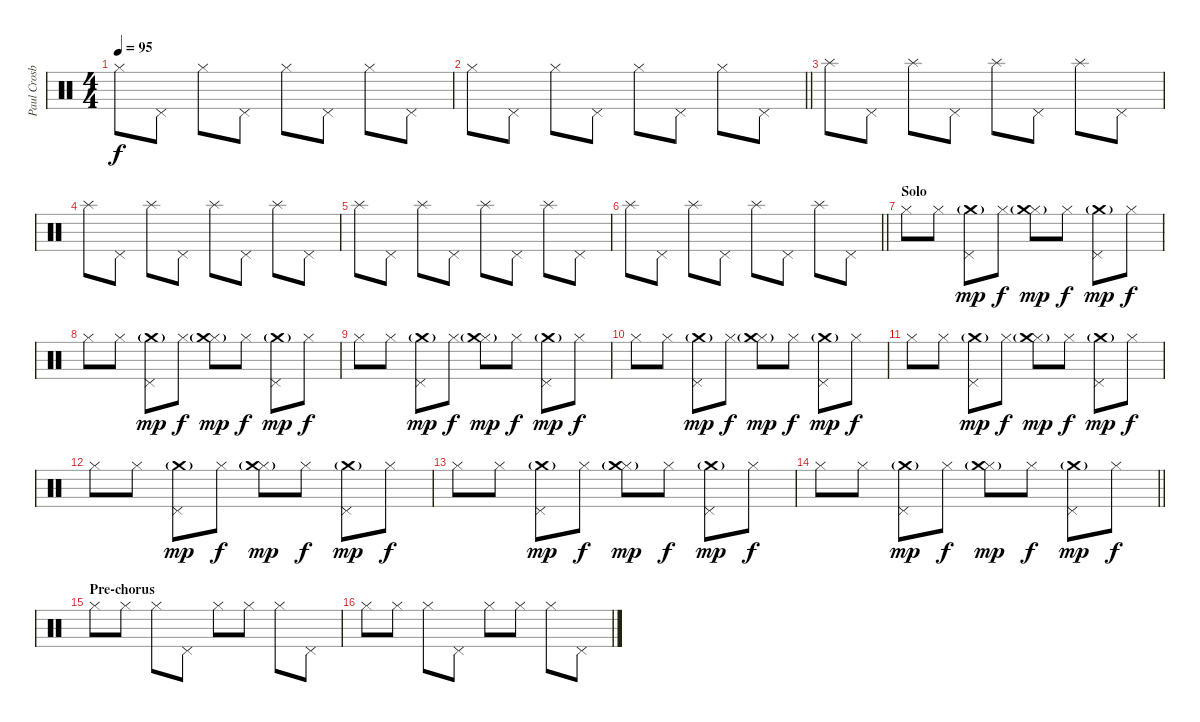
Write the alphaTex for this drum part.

\track ("Paul Crosby (Drums)" "Paul Crosb") {instrument percussion}
\staff {score}
\articulation defaults
\ts (4 4)
\tempo 95
\clef neutral
\ks c "Hi-Hat (closed)".8{dy f} "Pedal Hi-Hat (hit)".8 "Hi-Hat (closed)".8 "Pedal Hi-Hat (hit)".8 "Hi-Hat (closed)".8 "Pedal Hi-Hat (hit)".8 "Hi-Hat (closed)".8 "Pedal Hi-Hat (hit)".8
|
\barLineRight lightlight "Hi-Hat (closed)".8 "Pedal Hi-Hat (hit)".8 "Hi-Hat (closed)".8 "Pedal Hi-Hat (hit)".8 "Hi-Hat (closed)".8 "Pedal Hi-Hat (hit)".8 "Hi-Hat (closed)".8 "Pedal Hi-Hat (hit)".8
|
"Splash (hit)".8 "Pedal Hi-Hat (hit)".8 "Splash (hit)".8 "Pedal Hi-Hat (hit)".8 "Splash (hit)".8 "Pedal Hi-Hat (hit)".8 "Splash (hit)".8 "Pedal Hi-Hat (hit)".8 |
"Splash (hit)".8 "Pedal Hi-Hat (hit)".8 "Splash (hit)".8 "Pedal Hi-Hat (hit)".8 "Splash (hit)".8 "Pedal Hi-Hat (hit)".8 "Splash (hit)".8 "Pedal Hi-Hat (hit)".8 |
"Splash (hit)".8 "Pedal Hi-Hat (hit)".8 "Splash (hit)".8 "Pedal Hi-Hat (hit)".8 "Splash (hit)".8 "Pedal Hi-Hat (hit)".8 "Splash (hit)".8 "Pedal Hi-Hat (hit)".8 |
\barLineRight lightlight "Splash (hit)".8 "Pedal Hi-Hat (hit)".8 "Splash (hit)".8 "Pedal Hi-Hat (hit)".8 "Splash (hit)".8 "Pedal Hi-Hat (hit)".8 "Splash (hit)".8 "Pedal Hi-Hat (hit)".8
|
\section ("" "Solo")
"Hi-Hat (closed)".8 "Hi-Hat (closed)".8 ("Pedal Hi-Hat (hit)" "Crash medium (hit)"{g}).8{dy mp} "Hi-Hat (closed)".8{dy f} ("Hi-Hat (closed)" "Crash medium (hit)"{g}).8{dy mp} "Hi-Hat (closed)".8{dy f} ("Pedal Hi-Hat (hit)" "Crash medium (hit)"{g}).8{dy mp} "Hi-Hat (closed)".8{dy f} |
"Hi-Hat (closed)".8 "Hi-Hat (closed)".8 ("Pedal Hi-Hat (hit)" "Crash medium (hit)"{g}).8{dy mp} "Hi-Hat (closed)".8{dy f} ("Hi-Hat (closed)" "Crash medium (hit)"{g}).8{dy mp} "Hi-Hat (closed)".8{dy f} ("Pedal Hi-Hat (hit)" "Crash medium (hit)"{g}).8{dy mp} "Hi-Hat (closed)".8{dy f} |
"Hi-Hat (closed)".8 "Hi-Hat (closed)".8 ("Pedal Hi-Hat (hit)" "Crash medium (hit)"{g}).8{dy mp} "Hi-Hat (closed)".8{dy f} ("Hi-Hat (closed)" "Crash medium (hit)"{g}).8{dy mp} "Hi-Hat (closed)".8{dy f} ("Pedal Hi-Hat (hit)" "Crash medium (hit)"{g}).8{dy mp} "Hi-Hat (closed)".8{dy f} |
"Hi-Hat (closed)".8 "Hi-Hat (closed)".8 ("Pedal Hi-Hat (hit)" "Crash medium (hit)"{g}).8{dy mp} "Hi-Hat (closed)".8{dy f} ("Hi-Hat (closed)" "Crash medium (hit)"{g}).8{dy mp} "Hi-Hat (closed)".8{dy f} ("Pedal Hi-Hat (hit)" "Crash medium (hit)"{g}).8{dy mp} "Hi-Hat (closed)".8{dy f} |
"Hi-Hat (closed)".8 "Hi-Hat (closed)".8 ("Pedal Hi-Hat (hit)" "Crash medium (hit)"{g}).8{dy mp} "Hi-Hat (closed)".8{dy f} ("Hi-Hat (closed)" "Crash medium (hit)"{g}).8{dy mp} "Hi-Hat (closed)".8{dy f} ("Pedal Hi-Hat (hit)" "Crash medium (hit)"{g}).8{dy mp} "Hi-Hat (closed)".8{dy f} |
"Hi-Hat (closed)".8 "Hi-Hat (closed)".8 ("Pedal Hi-Hat (hit)" "Crash medium (hit)"{g}).8{dy mp} "Hi-Hat (closed)".8{dy f} ("Hi-Hat (closed)" "Crash medium (hit)"{g}).8{dy mp} "Hi-Hat (closed)".8{dy f} ("Pedal Hi-Hat (hit)" "Crash medium (hit)"{g}).8{dy mp} "Hi-Hat (closed)".8{dy f} |
"Hi-Hat (closed)".8 "Hi-Hat (closed)".8 ("Pedal Hi-Hat (hit)" "Crash medium (hit)"{g}).8{dy mp} "Hi-Hat (closed)".8{dy f} ("Hi-Hat (closed)" "Crash medium (hit)"{g}).8{dy mp} "Hi-Hat (closed)".8{dy f} ("Pedal Hi-Hat (hit)" "Crash medium (hit)"{g}).8{dy mp} "Hi-Hat (closed)".8{dy f} |
\barLineRight lightlight "Hi-Hat (closed)".8 "Hi-Hat (closed)".8
("Pedal Hi-Hat (hit)" "Crash medium (hit)"{g}).8{dy mp} "Hi-Hat (closed)".8{dy f} ("Hi-Hat (closed)" "Crash medium (hit)"{g}).8{dy mp} "Hi-Hat (closed)".8{dy f} ("Pedal Hi-Hat (hit)" "Crash medium (hit)"{g}).8{dy mp} "Hi-Hat (closed)".8{dy f} |
\section ("" "Pre-chorus")
"Hi-Hat (closed)".8 "Hi-Hat (closed)".8 "Hi-Hat (closed)".8 "Pedal Hi-Hat (hit)".8 "Hi-Hat (closed)".8 "Hi-Hat (closed)".8 "Hi-Hat (closed)".8 "Pedal Hi-Hat (hit)".8 |
"Hi-Hat (closed)".8 "Hi-Hat (closed)".8 "Hi-Hat (closed)".8 "Pedal Hi-Hat (hit)".8 "Hi-Hat (closed)".8 "Hi-Hat (closed)".8 "Hi-Hat (closed)".8 "Pedal Hi-Hat (hit)".8
